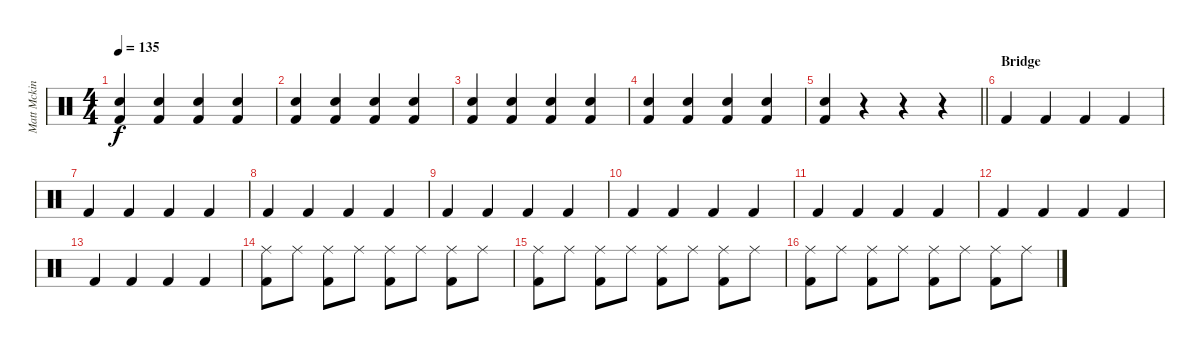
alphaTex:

\track ("Matt Mckinley (Drums)" "Matt Mckin") {instrument percussion}
\staff {score}
\articulation defaults
\ts (4 4)
\tempo 135
\clef neutral
\ks c
("Electric Snare (hit)" "Kick (hit) 2").4{dy f} ("Electric Snare (hit)" "Kick (hit) 2").4 ("Electric Snare (hit)" "Kick (hit) 2").4 ("Electric Snare (hit)" "Kick (hit) 2").4 |
("Electric Snare (hit)" "Kick (hit) 2").4 ("Electric Snare (hit)" "Kick (hit) 2").4 ("Electric Snare (hit)" "Kick (hit) 2").4 ("Electric Snare (hit)" "Kick (hit) 2").4 |
("Electric Snare (hit)" "Kick (hit) 2").4 ("Electric Snare (hit)" "Kick (hit) 2").4 ("Electric Snare (hit)" "Kick (hit) 2").4 ("Electric Snare (hit)" "Kick (hit) 2").4 |
("Electric Snare (hit)" "Kick (hit) 2").4 ("Electric Snare (hit)" "Kick (hit) 2").4 ("Electric Snare (hit)" "Kick (hit) 2").4 ("Electric Snare (hit)" "Kick (hit) 2").4 |
\barLineRight lightlight
("Electric Snare (hit)" "Kick (hit) 2").4 r.4 r.4 r.4 |
\section ("" "Bridge")
"Kick (hit) 2".4 "Kick (hit) 2".4 "Kick (hit) 2".4 "Kick (hit) 2".4 |
"Kick (hit) 2".4 "Kick (hit) 2".4 "Kick (hit) 2".4 "Kick (hit) 2".4 |
"Kick (hit) 2".4 "Kick (hit) 2".4 "Kick (hit) 2".4 "Kick (hit) 2".4 |
"Kick (hit) 2".4 "Kick (hit) 2".4 "Kick (hit) 2".4 "Kick (hit) 2".4 |
"Kick (hit) 2".4 "Kick (hit) 2".4 "Kick (hit) 2".4 "Kick (hit) 2".4 |
"Kick (hit) 2".4 "Kick (hit) 2".4 "Kick (hit) 2".4 "Kick (hit) 2".4 |
"Kick (hit) 2".4 "Kick (hit) 2".4 "Kick (hit) 2".4 "Kick (hit) 2".4 |
"Kick (hit) 2".4 "Kick (hit) 2".4 "Kick (hit) 2".4 "Kick (hit) 2".4 |
("Ride (middle)" "Kick (hit) 2").8 "Ride (middle)".8 ("Ride (middle)" "Kick (hit) 2").8 "Ride (middle)".8 ("Ride (middle)" "Kick (hit) 2").8 "Ride (middle)".8 ("Ride (middle)" "Kick (hit) 2").8 "Ride (middle)".8 |
("Ride (middle)" "Kick (hit) 2").8 "Ride (middle)".8 ("Ride (middle)" "Kick (hit) 2").8 "Ride (middle)".8 ("Ride (middle)" "Kick (hit) 2").8 "Ride (middle)".8 ("Ride (middle)" "Kick (hit) 2").8 "Ride (middle)".8 |
("Ride (middle)" "Kick (hit) 2").8 "Ride (middle)".8 ("Ride (middle)" "Kick (hit) 2").8 "Ride (middle)".8 ("Ride (middle)" "Kick (hit) 2").8 "Ride (middle)".8 ("Ride (middle)" "Kick (hit) 2").8 "Ride (middle)".8
